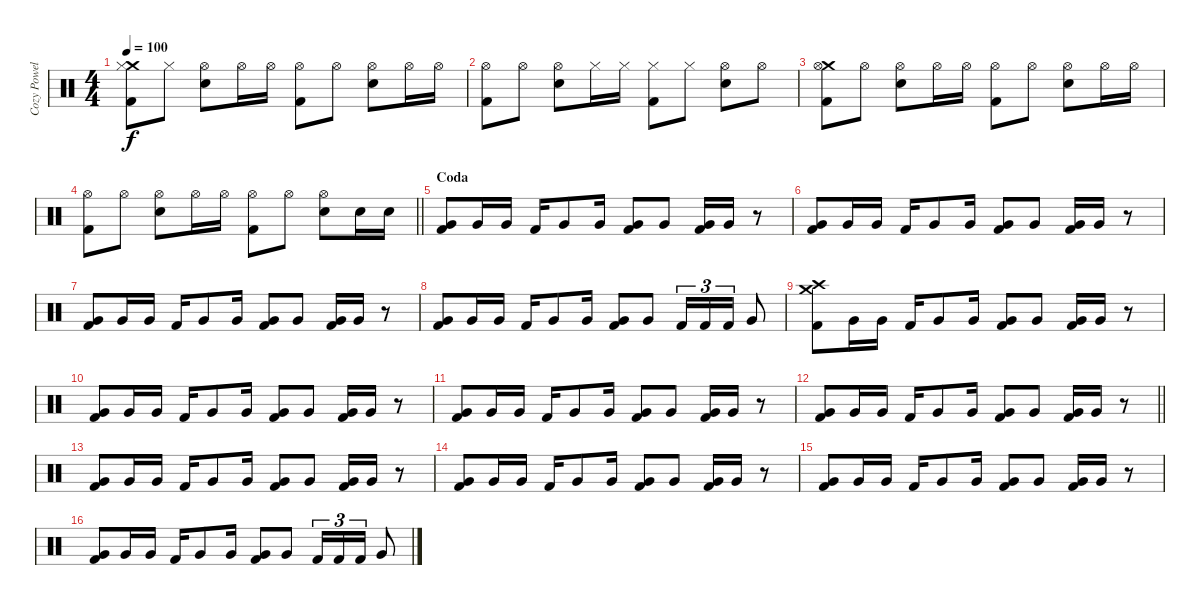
\track ("Cozy Powell " "Cozy Powel") {instrument percussion}
\staff {score}
\articulation defaults
\ts (4 4)
\tempo 100
\clef neutral
\ks c
("Crash medium (hit)" "Hi-Hat (closed)" "Kick (hit) 2").8{dy f} "Hi-Hat (closed)".8 ("Hi-Hat (open)" "Snare (hit) 2").8 "Hi-Hat (open)".16 "Hi-Hat (open)".16 ("Hi-Hat (open)" "Kick (hit) 2").8 "Hi-Hat (open)".8 ("Hi-Hat (open)" "Snare (hit) 2").8 "Hi-Hat (open)".16 "Hi-Hat (open)".16 |
("Hi-Hat (open)" "Kick (hit) 2").8 "Hi-Hat (open)".8 ("Hi-Hat (open)" "Snare (hit) 2").8 "Hi-Hat (closed)".16 "Hi-Hat (closed)".16 ("Hi-Hat (closed)" "Kick (hit) 2").8 "Hi-Hat (closed)".8 ("Hi-Hat (open)" "Snare (hit) 2").8 "Hi-Hat (open)".8 |
("Crash medium (hit)" "Hi-Hat (open)" "Kick (hit) 2").8 "Hi-Hat (open)".8 ("Hi-Hat (open)" "Snare (hit) 2").8 "Hi-Hat (open)".16 "Hi-Hat (open)".16 ("Hi-Hat (open)" "Kick (hit) 2").8 "Hi-Hat (open)".8 ("Hi-Hat (open)" "Snare (hit) 2").8 "Hi-Hat (open)".16 "Hi-Hat (open)".16 |
\barLineRight lightlight
("Hi-Hat (open)" "Kick (hit) 2").8 "Hi-Hat (open)".8 ("Hi-Hat (open)" "Snare (hit) 2").8 "Hi-Hat (open)".16 "Hi-Hat (open)".16 ("Hi-Hat (open)" "Kick (hit) 2").8 "Hi-Hat (open)".8 ("Hi-Hat (open)" "Snare (hit) 2").8 "Snare (hit) 2".16 "Snare (hit) 2".16 |
\section ("" "Coda")
("Very Low Tom (hit)" "Kick (hit) 2").8 "Very Low Tom (hit)".16 "Very Low Tom (hit)".16 "Kick (hit) 2".16 "Very Low Tom (hit)".8 "Very Low Tom (hit)".16 ("Very Low Tom (hit)" "Kick (hit) 2").8 "Very Low Tom (hit)".8 ("Very Low Tom (hit)" "Kick (hit) 2").16 "Very Low Tom (hit)".16 r.8 |
("Very Low Tom (hit)" "Kick (hit) 2").8 "Very Low Tom (hit)".16 "Very Low Tom (hit)".16 "Kick (hit) 2".16 "Very Low Tom (hit)".8 "Very Low Tom (hit)".16 ("Very Low Tom (hit)" "Kick (hit) 2").8 "Very Low Tom (hit)".8 ("Very Low Tom (hit)" "Kick (hit) 2").16 "Very Low Tom (hit)".16 r.8 |
("Very Low Tom (hit)" "Kick (hit) 2").8 "Very Low Tom (hit)".16 "Very Low Tom (hit)".16 "Kick (hit) 2".16 "Very Low Tom (hit)".8 "Very Low Tom (hit)".16 ("Very Low Tom (hit)" "Kick (hit) 2").8 "Very Low Tom (hit)".8 ("Very Low Tom (hit)" "Kick (hit) 2").16 "Very Low Tom (hit)".16 r.8 |
("Very Low Tom (hit)" "Kick (hit) 2").8 "Very Low Tom (hit)".16 "Very Low Tom (hit)".16 "Kick (hit) 2".16 "Very Low Tom (hit)".8 "Very Low Tom (hit)".16 ("Very Low Tom (hit)" "Kick (hit) 2").8 "Very Low Tom (hit)".8 "Kick (hit) 2".16{tu (3 2)} "Kick (hit) 2".16{tu (3 2)} "Kick (hit) 2".16{tu (3 2)} "Very Low Tom (hit)".8 |
("Crash medium (hit)" "Crash high (hit)" "Kick (hit) 2").8 "Very Low Tom (hit)".16 "Very Low Tom (hit)".16 "Kick (hit) 2".16 "Very Low Tom (hit)".8 "Very Low Tom (hit)".16 ("Very Low Tom (hit)" "Kick (hit) 2").8 "Very Low Tom (hit)".8 ("Very Low Tom (hit)" "Kick (hit) 2").16 "Very Low Tom (hit)".16 r.8 |
("Very Low Tom (hit)" "Kick (hit) 2").8 "Very Low Tom (hit)".16 "Very Low Tom (hit)".16 "Kick (hit) 2".16 "Very Low Tom (hit)".8 "Very Low Tom (hit)".16 ("Very Low Tom (hit)" "Kick (hit) 2").8 "Very Low Tom (hit)".8 ("Very Low Tom (hit)" "Kick (hit) 2").16 "Very Low Tom (hit)".16 r.8 |
("Very Low Tom (hit)" "Kick (hit) 2").8 "Very Low Tom (hit)".16 "Very Low Tom (hit)".16 "Kick (hit) 2".16 "Very Low Tom (hit)".8 "Very Low Tom (hit)".16 ("Very Low Tom (hit)" "Kick (hit) 2").8 "Very Low Tom (hit)".8 ("Very Low Tom (hit)" "Kick (hit) 2").16 "Very Low Tom (hit)".16 r.8 |
\barLineRight lightlight
("Very Low Tom (hit)" "Kick (hit) 2").8 "Very Low Tom (hit)".16 "Very Low Tom (hit)".16 "Kick (hit) 2".16 "Very Low Tom (hit)".8 "Very Low Tom (hit)".16 ("Very Low Tom (hit)" "Kick (hit) 2").8 "Very Low Tom (hit)".8 ("Very Low Tom (hit)" "Kick (hit) 2").16 "Very Low Tom (hit)".16 r.8 |
("Very Low Tom (hit)" "Kick (hit) 2").8 "Very Low Tom (hit)".16 "Very Low Tom (hit)".16 "Kick (hit) 2".16 "Very Low Tom (hit)".8 "Very Low Tom (hit)".16 ("Very Low Tom (hit)" "Kick (hit) 2").8 "Very Low Tom (hit)".8 ("Very Low Tom (hit)" "Kick (hit) 2").16 "Very Low Tom (hit)".16 r.8 |
("Very Low Tom (hit)" "Kick (hit) 2").8 "Very Low Tom (hit)".16 "Very Low Tom (hit)".16 "Kick (hit) 2".16 "Very Low Tom (hit)".8 "Very Low Tom (hit)".16 ("Very Low Tom (hit)" "Kick (hit) 2").8 "Very Low Tom (hit)".8 ("Very Low Tom (hit)" "Kick (hit) 2").16 "Very Low Tom (hit)".16 r.8 |
("Very Low Tom (hit)" "Kick (hit) 2").8 "Very Low Tom (hit)".16 "Very Low Tom (hit)".16 "Kick (hit) 2".16 "Very Low Tom (hit)".8 "Very Low Tom (hit)".16 ("Very Low Tom (hit)" "Kick (hit) 2").8 "Very Low Tom (hit)".8 ("Very Low Tom (hit)" "Kick (hit) 2").16 "Very Low Tom (hit)".16 r.8 |
("Very Low Tom (hit)" "Kick (hit) 2").8 "Very Low Tom (hit)".16 "Very Low Tom (hit)".16 "Kick (hit) 2".16 "Very Low Tom (hit)".8 "Very Low Tom (hit)".16 ("Very Low Tom (hit)" "Kick (hit) 2").8 "Very Low Tom (hit)".8 "Kick (hit) 2".16{tu (3 2)} "Kick (hit) 2".16{tu (3 2)} "Kick (hit) 2".16{tu (3 2)} "Very Low Tom (hit)".8
